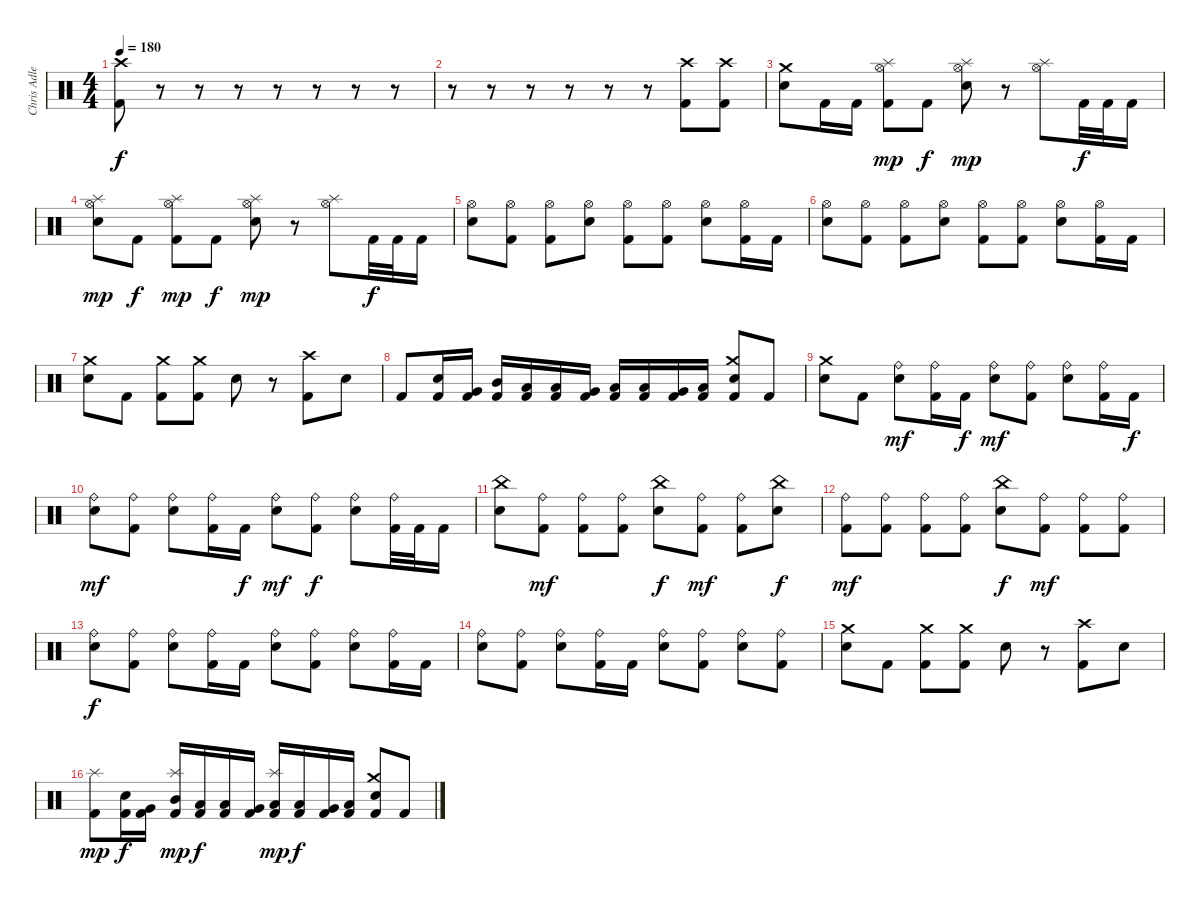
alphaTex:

\track ("Chris Adler" "Chris Adle") {instrument percussion}
\staff {score}
\articulation defaults
\ts (4 4)
\tempo 180
\clef neutral
\ks c
("Crash high (hit)" "Kick (hit) 2").8{dy f} r.8 r.8 r.8 r.8 r.8 r.8 r.8 |
r.8 r.8 r.8 r.8 r.8 r.8 ("Crash high (hit)" "Kick (hit) 2").8 ("Crash high (hit)" "Kick (hit) 2").8 |
("Crash medium (hit)" "Electric Snare (hit)").8 "Kick (hit) 2".16 "Kick (hit) 2".16 ("Splash (hit)" "Hi-Hat (open)" "Kick (hit) 2").8{dy mp} "Kick (hit) 2".8{dy f} ("Splash (hit)" "Hi-Hat (open)" "Electric Snare (hit)").8{dy mp} r.8 ("Splash (hit)" "Hi-Hat (open)").8 "Kick (hit) 2".32{dy f} "Kick (hit) 2".32 "Kick (hit) 2".16 |
("Splash (hit)" "Hi-Hat (open)" "Electric Snare (hit)").8{dy mp} "Kick (hit) 2".8{dy f} ("Splash (hit)" "Hi-Hat (open)" "Kick (hit) 2").8{dy mp} "Kick (hit) 2".8{dy f} ("Splash (hit)" "Hi-Hat (open)" "Electric Snare (hit)").8{dy mp} r.8 ("Splash (hit)" "Hi-Hat (open)").8 "Kick (hit) 2".32{dy f} "Kick (hit) 2".32 "Kick (hit) 2".16 |
("Hi-Hat (open)" "Electric Snare (hit)").8 ("Hi-Hat (open)" "Kick (hit) 2").8 ("Hi-Hat (open)" "Kick (hit) 2").8 ("Hi-Hat (open)" "Electric Snare (hit)").8 ("Hi-Hat (open)" "Kick (hit) 2").8 ("Hi-Hat (open)" "Kick (hit) 2").8 ("Hi-Hat (open)" "Electric Snare (hit)").8 ("Hi-Hat (open)" "Kick (hit) 2").16 "Kick (hit) 2".16 |
("Hi-Hat (open)" "Electric Snare (hit)").8 ("Hi-Hat (open)" "Kick (hit) 2").8 ("Hi-Hat (open)" "Kick (hit) 2").8 ("Hi-Hat (open)" "Electric Snare (hit)").8 ("Hi-Hat (open)" "Kick (hit) 2").8 ("Hi-Hat (open)" "Kick (hit) 2").8 ("Hi-Hat (open)" "Electric Snare (hit)").8 ("Hi-Hat (open)" "Kick (hit) 2").16 "Kick (hit) 2".16 |
("Crash medium (hit)" "Electric Snare (hit)").8 "Kick (hit) 2".8 ("Crash medium (hit)" "Kick (hit) 2").8 ("Crash medium (hit)" "Kick (hit) 2").8 "Electric Snare (hit)".8 r.8 ("Crash high (hit)" "Kick (hit) 2").8 "Electric Snare (hit)".8 |
"Kick (hit) 2".8 ("Electric Snare (hit)" "Kick (hit) 2").16 ("Very Low Tom (hit)" "Kick (hit) 2").16 ("Mid Tom (hit)" "Kick (hit) 2").16 ("Low Tom (hit)" "Kick (hit) 2").16 ("Low Floor Tom (hit)" "Kick (hit) 2").16 ("Very Low Tom (hit)" "Kick (hit) 2").16 ("Low Tom (hit)" "Kick (hit) 2").16 ("Low Floor Tom (hit)" "Kick (hit) 2").16 ("Very Low Tom (hit)" "Kick (hit) 2").16 ("Low Tom (hit)" "Kick (hit) 2").16 ("Crash medium (hit)" "Electric Snare (hit)" "Kick (hit) 2").8 "Kick (hit) 2".8 |
("Crash medium (hit)" "Electric Snare (hit)").8 "Kick (hit) 2".8 ("Ride (bell)" "Electric Snare (hit)").8{dy mf} ("Ride (bell)" "Kick (hit) 2").16 "Kick (hit) 2".16{dy f} ("Ride (bell)" "Electric Snare (hit)").8{dy mf} ("Ride (bell)" "Kick (hit) 2").8 ("Ride (bell)" "Electric Snare (hit)").8 ("Ride (bell)" "Kick (hit) 2").16 "Kick (hit) 2".16{dy f} |
("Ride (bell)" "Electric Snare (hit)").8{dy mf} ("Ride (bell)" "Kick (hit) 2").8 ("Ride (bell)" "Electric Snare (hit)").8 ("Ride (bell)" "Kick (hit) 2").16 "Kick (hit) 2".16{dy f} ("Ride (bell)" "Electric Snare (hit)").8{dy mf} ("Ride (bell)" "Kick (hit) 2").8{dy f} ("Ride (bell)" "Electric Snare (hit)").8 ("Ride (bell)" "Kick (hit) 2").32 "Kick (hit) 2".32 "Kick (hit) 2".16 |
("China (hit)" "Electric Snare (hit)").8 ("Ride (bell)" "Kick (hit) 2").8{dy mf} ("Ride (bell)" "Kick (hit) 2").8 ("Ride (bell)" "Kick (hit) 2").8 ("China (hit)" "Electric Snare (hit)").8{dy f} ("Ride (bell)" "Kick (hit) 2").8{dy mf} ("Ride (bell)" "Kick (hit) 2").8 ("China (hit)" "Electric Snare (hit)").8{dy f} |
("Ride (bell)" "Kick (hit) 2").8{dy mf} ("Ride (bell)" "Kick (hit) 2").8 ("Ride (bell)" "Kick (hit) 2").8 ("Ride (bell)" "Kick (hit) 2").8 ("China (hit)" "Electric Snare (hit)").8{dy f} ("Ride (bell)" "Kick (hit) 2").8{dy mf} ("Ride (bell)" "Kick (hit) 2").8 ("Ride (bell)" "Kick (hit) 2").8 |
("Ride (bell)" "Electric Snare (hit)").8{dy f} ("Ride (bell)" "Kick (hit) 2").8 ("Ride (bell)" "Electric Snare (hit)").8 ("Ride (bell)" "Kick (hit) 2").16 "Kick (hit) 2".16 ("Ride (bell)" "Electric Snare (hit)").8 ("Ride (bell)" "Kick (hit) 2").8 ("Ride (bell)" "Electric Snare (hit)").8 ("Ride (bell)" "Kick (hit) 2").16 "Kick (hit) 2".16 |
("Ride (bell)" "Electric Snare (hit)").8 ("Ride (bell)" "Kick (hit) 2").8 ("Ride (bell)" "Electric Snare (hit)").8 ("Ride (bell)" "Kick (hit) 2").16 "Kick (hit) 2".16 ("Ride (bell)" "Electric Snare (hit)").8 ("Ride (bell)" "Kick (hit) 2").8 ("Ride (bell)" "Electric Snare (hit)").8 ("Ride (bell)" "Kick (hit) 2").8 |
("Crash medium (hit)" "Electric Snare (hit)").8 "Kick (hit) 2".8 ("Crash medium (hit)" "Kick (hit) 2").8 ("Crash medium (hit)" "Kick (hit) 2").8 "Electric Snare (hit)".8 r.8 ("Crash high (hit)" "Kick (hit) 2").8 "Electric Snare (hit)".8 |
("Splash (hit)" "Kick (hit) 2").8{dy mp} ("Electric Snare (hit)" "Kick (hit) 2").16{dy f} ("Very Low Tom (hit)" "Kick (hit) 2").16 ("Splash (hit)" "Mid Tom (hit)" "Kick (hit) 2").16{dy mp} ("Low Tom (hit)" "Kick (hit) 2").16{dy f} ("Low Floor Tom (hit)" "Kick (hit) 2").16 ("Very Low Tom (hit)" "Kick (hit) 2").16 ("Splash (hit)" "Low Tom (hit)" "Kick (hit) 2").16{dy mp} ("Low Floor Tom (hit)" "Kick (hit) 2").16{dy f} ("Very Low Tom (hit)" "Kick (hit) 2").16 ("Low Tom (hit)" "Kick (hit) 2").16 ("Crash medium (hit)" "Electric Snare (hit)" "Kick (hit) 2").8 "Kick (hit) 2".8
